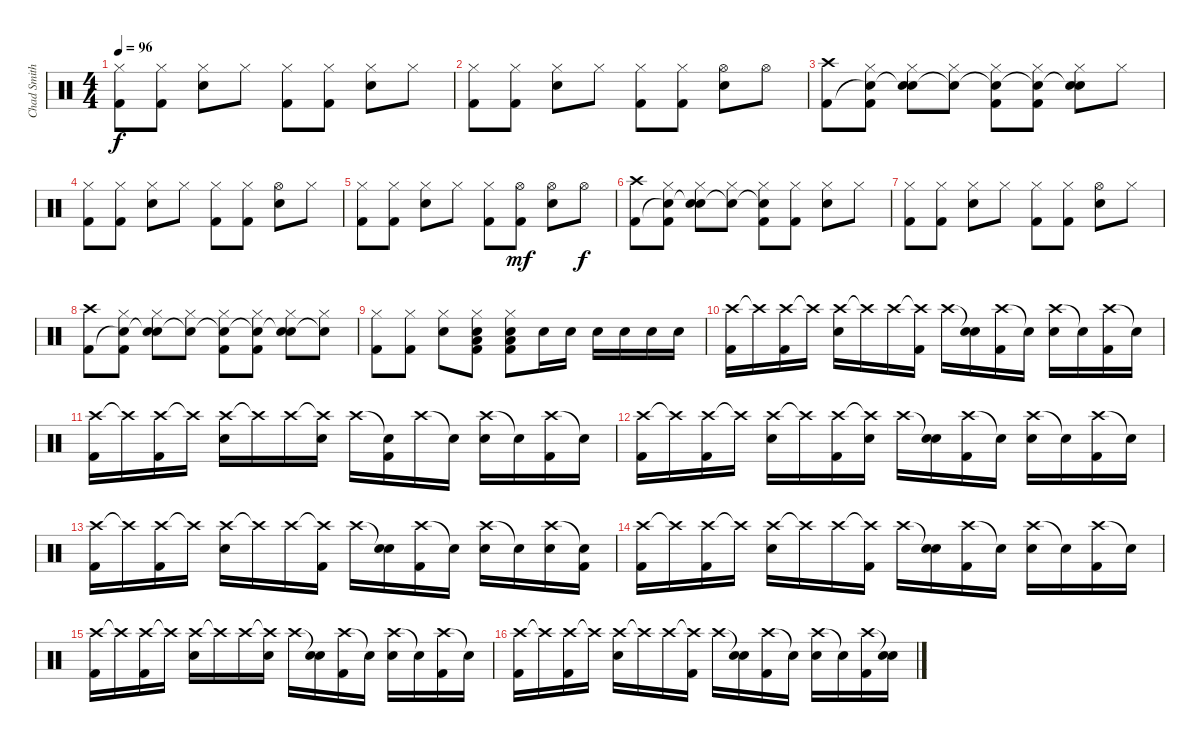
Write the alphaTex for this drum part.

\track ("Chad Smith" "Chad Smith") {mute instrument percussion}
\staff {score}
\articulation defaults
\ts (4 4)
\tempo 96
\clef neutral
\ks c
("Hi-Hat (closed)" "Kick (hit) 2").8{dy f} ("Hi-Hat (closed)" "Kick (hit) 2").8 ("Hi-Hat (closed)" "Snare (hit) 2").8 "Hi-Hat (closed)".8 ("Hi-Hat (closed)" "Kick (hit) 2").8 ("Hi-Hat (closed)" "Kick (hit) 2").8 ("Hi-Hat (closed)" "Snare (hit) 2").8 "Hi-Hat (closed)".8 |
("Hi-Hat (closed)" "Kick (hit) 2").8 ("Hi-Hat (closed)" "Kick (hit) 2").8 ("Hi-Hat (closed)" "Snare (hit) 2").8 "Hi-Hat (closed)".8 ("Hi-Hat (closed)" "Kick (hit) 2").8 ("Hi-Hat (closed)" "Kick (hit) 2").8 ("Hi-Hat (open)" "Snare (hit) 2").8 "Hi-Hat (open)".8 |
("Crash high (hit)" "Kick (hit) 2").8 ("Hi-Hat (closed)" "Snare (hit)"{t} "Kick (hit) 2").8 ("Hi-Hat (closed)" "Snare (hit)"{t} "Snare (hit) 2").8 ("Hi-Hat (closed)" "Snare (hit)"{t}).8 ("Hi-Hat (closed)" "Snare (hit)"{t} "Kick (hit) 2").8 ("Hi-Hat (closed)" "Snare (hit)"{t} "Kick (hit) 2").8 ("Hi-Hat (closed)" "Snare (hit)"{t} "Snare (hit) 2").8 "Hi-Hat (closed)".8 |
("Hi-Hat (closed)" "Kick (hit) 2").8 ("Hi-Hat (closed)" "Kick (hit) 2").8 ("Hi-Hat (closed)" "Snare (hit) 2").8 "Hi-Hat (closed)".8 ("Hi-Hat (closed)" "Kick (hit) 2").8 ("Hi-Hat (closed)" "Kick (hit) 2").8 ("Hi-Hat (open)" "Snare (hit) 2").8 "Hi-Hat (closed)".8 |
("Hi-Hat (closed)" "Kick (hit) 2").8 ("Hi-Hat (closed)" "Kick (hit) 2").8 ("Hi-Hat (closed)" "Snare (hit) 2").8 "Hi-Hat (closed)".8 ("Hi-Hat (closed)" "Kick (hit) 2").8 ("Hi-Hat (open)" "Kick (hit) 2").8{dy mf} ("Hi-Hat (open)" "Snare (hit) 2").8 "Hi-Hat (open)".8{dy f} |
("Crash high (hit)" "Kick (hit) 2").8 ("Hi-Hat (closed)" "Snare (hit)"{t} "Kick (hit) 2").8 ("Hi-Hat (closed)" "Snare (hit)"{t} "Snare (hit) 2").8 ("Hi-Hat (closed)" "Snare (hit)"{t}).8 ("Hi-Hat (closed)" "Snare (hit)"{t} "Kick (hit) 2").8 ("Hi-Hat (closed)" "Kick (hit) 2").8 ("Hi-Hat (closed)" "Snare (hit) 2").8 "Hi-Hat (closed)".8 |
("Hi-Hat (closed)" "Kick (hit) 2").8 ("Hi-Hat (closed)" "Kick (hit) 2").8 ("Hi-Hat (closed)" "Snare (hit) 2").8 "Hi-Hat (closed)".8 ("Hi-Hat (closed)" "Kick (hit) 2").8 ("Hi-Hat (closed)" "Kick (hit) 2").8 ("Hi-Hat (open)" "Snare (hit) 2").8 "Hi-Hat (closed)".8 |
("Crash high (hit)" "Kick (hit) 2").8 ("Hi-Hat (closed)" "Snare (hit)"{t} "Kick (hit) 2").8 ("Hi-Hat (closed)" "Snare (hit)"{t} "Snare (hit) 2").8 ("Hi-Hat (closed)" "Snare (hit)"{t}).8 ("Hi-Hat (closed)" "Snare (hit)"{t} "Kick (hit) 2").8 ("Hi-Hat (closed)" "Snare (hit)"{t} "Kick (hit) 2").8 ("Hi-Hat (closed)" "Snare (hit)"{t} "Snare (hit) 2").8 ("Hi-Hat (closed)" "Snare (hit)"{t}).8 |
("Hi-Hat (closed)" "Kick (hit) 2").8 ("Hi-Hat (closed)" "Kick (hit) 2").8 ("Hi-Hat (closed)" "Snare (hit) 2").8 ("Hi-Hat (closed)" "Snare (hit) 2" "Low Floor Tom (hit)" "Kick (hit) 2").8 ("Hi-Hat (closed)" "Snare (hit) 2" "Low Floor Tom (hit)" "Kick (hit) 2").8 "Snare (hit) 2".16 "Snare (hit) 2".16 "Snare (hit) 2".16 "Snare (hit) 2".16 "Snare (hit) 2".16 "Snare (hit) 2".16 |
("Crash high (hit)" "Kick (hit) 2").16 "Crash high (hit)"{t}.16 ("Crash high (hit)" "Kick (hit) 2").16 "Crash high (hit)"{t}.16 ("Crash high (hit)" "Snare (hit) 2").16 "Crash high (hit)"{t}.16 "Crash high (hit)".16 ("Crash high (hit)"{t} "Kick (hit) 2").16 "Crash high (hit)".16 ("Snare (hit)"{t} "Snare (hit) 2").16 ("Crash high (hit)" "Kick (hit) 2").16 "Snare (hit)"{t}.16 ("Crash high (hit)" "Snare (hit) 2").16 "Snare (hit)"{t}.16 ("Crash high (hit)" "Kick (hit) 2").16 "Snare (hit)"{t}.16 |
("Crash high (hit)" "Kick (hit) 2").16 "Crash high (hit)"{t}.16 ("Crash high (hit)" "Kick (hit) 2").16 "Crash high (hit)"{t}.16 ("Crash high (hit)" "Snare (hit) 2").16 "Crash high (hit)"{t}.16 "Crash high (hit)".16 ("Crash high (hit)"{t} "Snare (hit) 2").16 "Crash high (hit)".16 ("Snare (hit)"{t} "Kick (hit) 2").16 "Crash high (hit)".16 "Snare (hit)"{t}.16 ("Crash high (hit)" "Snare (hit) 2").16 "Snare (hit)"{t}.16 ("Crash high (hit)" "Kick (hit) 2").16 "Snare (hit)"{t}.16 |
("Crash high (hit)" "Kick (hit) 2").16 "Crash high (hit)"{t}.16 ("Crash high (hit)" "Kick (hit) 2").16 "Crash high (hit)"{t}.16 ("Crash high (hit)" "Snare (hit) 2").16 "Crash high (hit)"{t}.16 ("Crash high (hit)" "Kick (hit) 2").16 ("Crash high (hit)"{t} "Snare (hit) 2").16 "Crash high (hit)".16 ("Snare (hit)"{t} "Snare (hit) 2").16 ("Crash high (hit)" "Kick (hit) 2").16 "Snare (hit)"{t}.16 ("Crash high (hit)" "Snare (hit) 2").16 "Snare (hit)"{t}.16 ("Crash high (hit)" "Kick (hit) 2").16 "Snare (hit)"{t}.16 |
("Crash high (hit)" "Kick (hit) 2").16 "Crash high (hit)"{t}.16 ("Crash high (hit)" "Kick (hit) 2").16 "Crash high (hit)"{t}.16 ("Crash high (hit)" "Snare (hit) 2").16 "Crash high (hit)"{t}.16 "Crash high (hit)".16 ("Crash high (hit)"{t} "Kick (hit) 2").16 "Crash high (hit)".16 ("Snare (hit)"{t} "Snare (hit) 2").16 ("Crash high (hit)" "Kick (hit) 2").16 "Snare (hit)"{t}.16 ("Crash high (hit)" "Snare (hit) 2").16 "Snare (hit)"{t}.16 ("Crash high (hit)" "Snare (hit) 2").16 ("Snare (hit)"{t} "Kick (hit) 2").16 |
("Crash high (hit)" "Kick (hit) 2").16 "Crash high (hit)"{t}.16 ("Crash high (hit)" "Kick (hit) 2").16 "Crash high (hit)"{t}.16 ("Crash high (hit)" "Snare (hit) 2").16 "Crash high (hit)"{t}.16 "Crash high (hit)".16 ("Crash high (hit)"{t} "Kick (hit) 2").16 "Crash high (hit)".16 ("Snare (hit)"{t} "Snare (hit) 2").16 ("Crash high (hit)" "Kick (hit) 2").16 "Snare (hit)"{t}.16 ("Crash high (hit)" "Snare (hit) 2").16 "Snare (hit)"{t}.16 ("Crash high (hit)" "Kick (hit) 2").16 "Snare (hit)"{t}.16 |
("Crash high (hit)" "Kick (hit) 2").16 "Crash high (hit)"{t}.16 ("Crash high (hit)" "Kick (hit) 2").16 "Crash high (hit)"{t}.16 ("Crash high (hit)" "Snare (hit) 2").16 "Crash high (hit)"{t}.16 "Crash high (hit)".16 ("Crash high (hit)"{t} "Snare (hit) 2").16 "Crash high (hit)".16 ("Snare (hit)"{t} "Snare (hit) 2").16 ("Crash high (hit)" "Kick (hit) 2").16 "Snare (hit)"{t}.16 ("Crash high (hit)" "Snare (hit) 2").16 "Snare (hit)"{t}.16 ("Crash high (hit)" "Kick (hit) 2").16 "Snare (hit)"{t}.16 |
("Crash high (hit)" "Kick (hit) 2").16 "Crash high (hit)"{t}.16 ("Crash high (hit)" "Kick (hit) 2").16 "Crash high (hit)"{t}.16 ("Crash high (hit)" "Snare (hit) 2").16 "Crash high (hit)"{t}.16 "Crash high (hit)".16 ("Crash high (hit)"{t} "Kick (hit) 2").16 "Crash high (hit)".16 ("Snare (hit)"{t} "Snare (hit) 2").16 ("Crash high (hit)" "Kick (hit) 2").16 "Snare (hit)"{t}.16 ("Crash high (hit)" "Snare (hit) 2").16 "Snare (hit)"{t}.16 ("Crash high (hit)" "Kick (hit) 2").16 ("Snare (hit)"{t} "Snare (hit) 2").16
